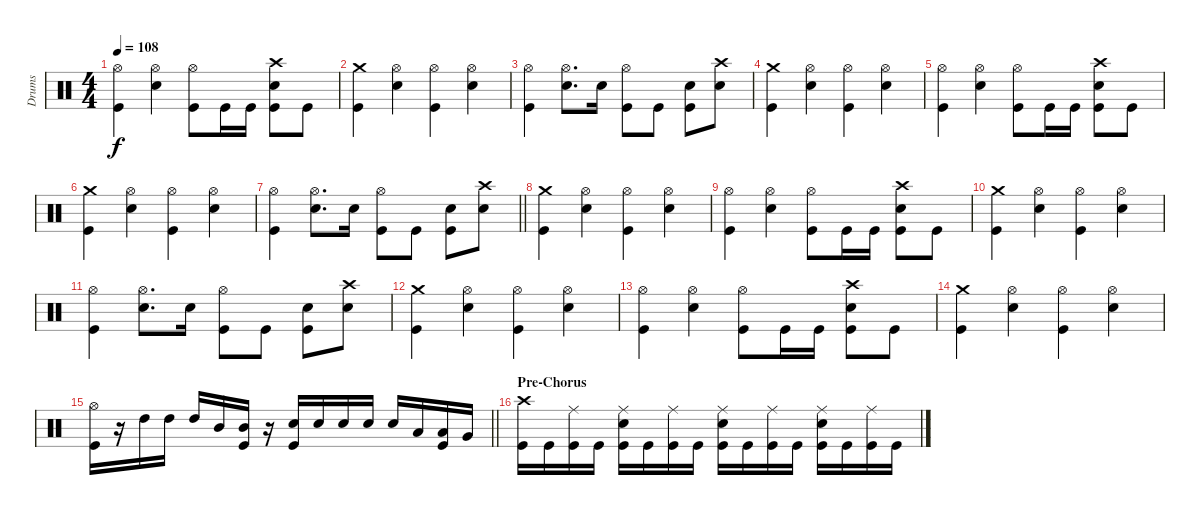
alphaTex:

\track ("Drums" "Drums") {instrument percussion}
\staff {score}
\articulation defaults
\ts (4 4)
\tempo 108
\clef neutral
\ks c
("Hi-Hat (open)" "Kick (hit)").4{dy f} ("Hi-Hat (open)" "Electric Snare (hit)").4 ("Hi-Hat (open)" "Kick (hit)").8 "Kick (hit)".16 "Kick (hit)".16 ("Crash high (hit)" "Electric Snare (hit)" "Kick (hit)").8 "Kick (hit)".8 |
("Crash medium (hit)" "Kick (hit)").4 ("Hi-Hat (open)" "Electric Snare (hit)").4 ("Hi-Hat (open)" "Kick (hit)").4 ("Hi-Hat (open)" "Electric Snare (hit)").4 |
("Hi-Hat (open)" "Kick (hit)").4 ("Hi-Hat (open)" "Electric Snare (hit)").8{d} "Electric Snare (hit)".16 ("Hi-Hat (open)" "Kick (hit)").8 "Kick (hit)".8 ("Electric Snare (hit)" "Kick (hit)").8 ("Crash high (hit)" "Electric Snare (hit)").8 |
("Crash medium (hit)" "Kick (hit)").4 ("Hi-Hat (open)" "Electric Snare (hit)").4 ("Hi-Hat (open)" "Kick (hit)").4 ("Hi-Hat (open)" "Electric Snare (hit)").4 |
("Hi-Hat (open)" "Kick (hit)").4 ("Hi-Hat (open)" "Electric Snare (hit)").4 ("Hi-Hat (open)" "Kick (hit)").8 "Kick (hit)".16 "Kick (hit)".16 ("Crash high (hit)" "Electric Snare (hit)" "Kick (hit)").8 "Kick (hit)".8 |
("Crash medium (hit)" "Kick (hit)").4 ("Hi-Hat (open)" "Electric Snare (hit)").4 ("Hi-Hat (open)" "Kick (hit)").4 ("Hi-Hat (open)" "Electric Snare (hit)").4 |
\barLineRight lightlight
("Hi-Hat (open)" "Kick (hit)").4 ("Hi-Hat (open)" "Electric Snare (hit)").8{d} "Electric Snare (hit)".16 ("Hi-Hat (open)" "Kick (hit)").8 "Kick (hit)".8 ("Electric Snare (hit)" "Kick (hit)").8 ("Crash high (hit)" "Electric Snare (hit)").8 |
("Crash medium (hit)" "Kick (hit)").4 ("Hi-Hat (open)" "Electric Snare (hit)").4 ("Hi-Hat (open)" "Kick (hit)").4 ("Hi-Hat (open)" "Electric Snare (hit)").4 |
("Hi-Hat (open)" "Kick (hit)").4 ("Hi-Hat (open)" "Electric Snare (hit)").4 ("Hi-Hat (open)" "Kick (hit)").8 "Kick (hit)".16 "Kick (hit)".16 ("Crash high (hit)" "Electric Snare (hit)" "Kick (hit)").8 "Kick (hit)".8 |
("Crash medium (hit)" "Kick (hit)").4 ("Hi-Hat (open)" "Electric Snare (hit)").4 ("Hi-Hat (open)" "Kick (hit)").4 ("Hi-Hat (open)" "Electric Snare (hit)").4 |
("Hi-Hat (open)" "Kick (hit)").4 ("Hi-Hat (open)" "Electric Snare (hit)").8{d} "Electric Snare (hit)".16 ("Hi-Hat (open)" "Kick (hit)").8 "Kick (hit)".8 ("Electric Snare (hit)" "Kick (hit)").8 ("Crash high (hit)" "Electric Snare (hit)").8 |
("Crash medium (hit)" "Kick (hit)").4 ("Hi-Hat (open)" "Electric Snare (hit)").4 ("Hi-Hat (open)" "Kick (hit)").4 ("Hi-Hat (open)" "Electric Snare (hit)").4 |
("Hi-Hat (open)" "Kick (hit)").4 ("Hi-Hat (open)" "Electric Snare (hit)").4 ("Hi-Hat (open)" "Kick (hit)").8 "Kick (hit)".16 "Kick (hit)".16 ("Crash high (hit)" "Electric Snare (hit)" "Kick (hit)").8 "Kick (hit)".8 |
("Crash medium (hit)" "Kick (hit)").4 ("Hi-Hat (open)" "Electric Snare (hit)").4 ("Hi-Hat (open)" "Kick (hit)").4 ("Hi-Hat (open)" "Electric Snare (hit)").4 |
\barLineRight lightlight
("Hi-Hat (open)" "Kick (hit)").16 r.16 "High Tom (hit)".16 "High Tom (hit)".16 "High Tom (hit)".16 "Mid Tom (hit)".16 ("Mid Tom (hit)" "Kick (hit)").16 r.16 ("Electric Snare (hit)" "Kick (hit)").16 "Electric Snare (hit)".16 "Electric Snare (hit)".16 "Electric Snare (hit)".16 "Electric Snare (hit)".16 "Low Tom (hit)".16 ("Low Tom (hit)" "Kick (hit)").16 "Very Low Tom (hit)".16 |
\section ("" "Pre-Chorus")
("Crash high (hit)" "Kick (hit)").16 "Kick (hit)".16 ("Ride (middle)" "Kick (hit)").16 "Kick (hit)".16 ("Ride (middle)" "Electric Snare (hit)" "Kick (hit)").16 "Kick (hit)".16 ("Ride (middle)" "Kick (hit)").16 "Kick (hit)".16 ("Ride (middle)" "Electric Snare (hit)" "Kick (hit)").16 "Kick (hit)".16 ("Ride (middle)" "Kick (hit)").16 "Kick (hit)".16 ("Ride (middle)" "Electric Snare (hit)" "Kick (hit)").16 "Kick (hit)".16 ("Ride (middle)" "Kick (hit)").16 "Kick (hit)".16
